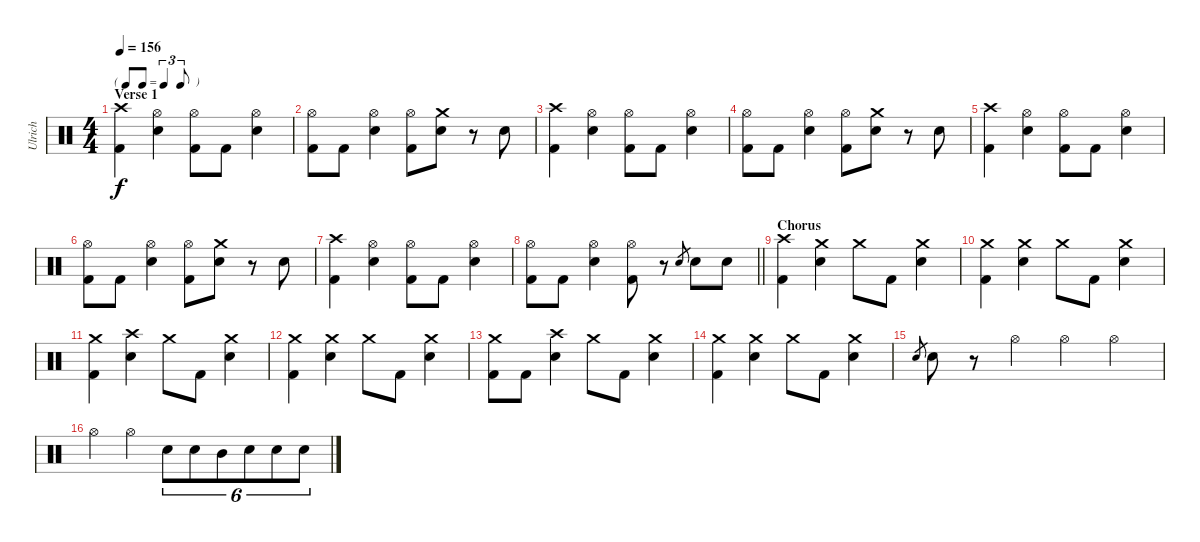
\track ("Ulrich" "Ulrich") {instrument percussion}
\staff {score}
\articulation defaults
\ts (4 4)
\tf triplet8th
\section ("" "Verse 1")
\tempo 156
\clef neutral
\ks c
("Crash high (hit)" "Kick (hit) 2").4{dy f} ("Hi-Hat (open)" "Electric Snare (hit)").4 ("Hi-Hat (open)" "Kick (hit) 2").8 "Kick (hit) 2".8 ("Hi-Hat (open)" "Electric Snare (hit)").4 |
("Hi-Hat (open)" "Kick (hit) 2").8 "Kick (hit) 2".8 ("Hi-Hat (open)" "Electric Snare (hit)").4 ("Hi-Hat (open)" "Kick (hit) 2").8 ("Crash medium (hit)" "Electric Snare (hit)").8 r.8 "Electric Snare (hit)".8 |
("Crash high (hit)" "Kick (hit) 2").4 ("Hi-Hat (open)" "Electric Snare (hit)").4 ("Hi-Hat (open)" "Kick (hit) 2").8 "Kick (hit) 2".8 ("Hi-Hat (open)" "Electric Snare (hit)").4 |
("Hi-Hat (open)" "Kick (hit) 2").8 "Kick (hit) 2".8 ("Hi-Hat (open)" "Electric Snare (hit)").4 ("Hi-Hat (open)" "Kick (hit) 2").8 ("Crash medium (hit)" "Electric Snare (hit)").8 r.8 "Electric Snare (hit)".8 |
("Crash high (hit)" "Kick (hit) 2").4 ("Hi-Hat (open)" "Electric Snare (hit)").4 ("Hi-Hat (open)" "Kick (hit) 2").8 "Kick (hit) 2".8 ("Hi-Hat (open)" "Electric Snare (hit)").4 |
("Hi-Hat (open)" "Kick (hit) 2").8 "Kick (hit) 2".8 ("Hi-Hat (open)" "Electric Snare (hit)").4 ("Hi-Hat (open)" "Kick (hit) 2").8 ("Crash medium (hit)" "Electric Snare (hit)").8 r.8 "Electric Snare (hit)".8 |
("Crash high (hit)" "Kick (hit) 2").4 ("Hi-Hat (open)" "Electric Snare (hit)").4 ("Hi-Hat (open)" "Kick (hit) 2").8 "Kick (hit) 2".8 ("Hi-Hat (open)" "Electric Snare (hit)").4 |
\barLineRight lightlight
("Hi-Hat (open)" "Kick (hit) 2").8 "Kick (hit) 2".8 ("Hi-Hat (open)" "Electric Snare (hit)").4 ("Hi-Hat (open)" "Kick (hit) 2").8 r.8 "Electric Snare (hit)".8{gr} "Electric Snare (hit)".8 "Electric Snare (hit)".8 |
\section ("" "Chorus")
("Crash high (hit)" "Kick (hit) 2").4 ("Crash medium (hit)" "Electric Snare (hit)").4 "Crash medium (hit)".8 "Kick (hit) 2".8 ("Crash medium (hit)" "Electric Snare (hit)").4 |
("Crash medium (hit)" "Kick (hit) 2").4 ("Crash medium (hit)" "Electric Snare (hit)").4 "Crash medium (hit)".8 "Kick (hit) 2".8 ("Crash medium (hit)" "Electric Snare (hit)").4 |
("Crash medium (hit)" "Kick (hit) 2").4 ("Crash high (hit)" "Electric Snare (hit)").4 "Crash medium (hit)".8 "Kick (hit) 2".8 ("Crash medium (hit)" "Electric Snare (hit)").4 |
("Crash medium (hit)" "Kick (hit) 2").4 ("Crash medium (hit)" "Electric Snare (hit)").4 "Crash medium (hit)".8 "Kick (hit) 2".8 ("Crash medium (hit)" "Electric Snare (hit)").4 |
("Crash medium (hit)" "Kick (hit) 2").8 "Kick (hit) 2".8 ("Crash high (hit)" "Electric Snare (hit)").4 "Crash medium (hit)".8 "Kick (hit) 2".8 ("Crash medium (hit)" "Electric Snare (hit)").4 |
("Crash medium (hit)" "Kick (hit) 2").4 ("Crash medium (hit)" "Electric Snare (hit)").4 "Crash medium (hit)".8 "Kick (hit) 2".8 ("Crash medium (hit)" "Electric Snare (hit)").4 |
"Electric Snare (hit)".8{gr} "Electric Snare (hit)".8 r.8 "Hi-Hat (open)".4 "Hi-Hat (open)".4 "Hi-Hat (open)".4 |
"Hi-Hat (open)".4 "Hi-Hat (open)".4 "Electric Snare (hit)".8{tu (6 4)} "Electric Snare (hit)".8{tu (6 4)} "Mid Tom (hit)".8{tu (6 4)} "Electric Snare (hit)".8{tu (6 4)} "Electric Snare (hit)".8{tu (6 4)} "Electric Snare (hit)".8{tu (6 4)}
